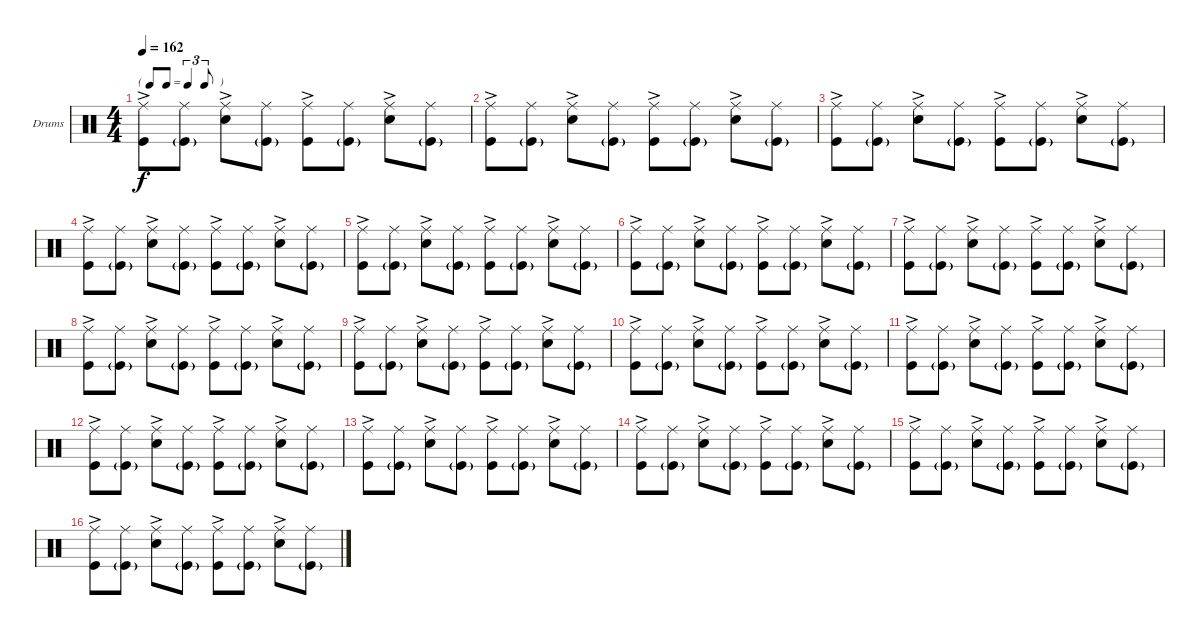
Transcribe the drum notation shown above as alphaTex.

\bracketExtendMode groupsimilarinstruments
\firstSystemTrackNameOrientation horizontal
\otherSystemsTrackNameOrientation horizontal
\track ("Drumkit" "Drums") {instrument percussion}
\staff {score}
\articulation defaults
\ts (4 4)
\tf triplet8th
\tempo 162
\clef neutral
\ks c
("Kick (hit)" "Ride (middle)"{ac}).8{dy f} ("Kick (hit)"{g} "Ride (middle)").8 ("Snare (hit) 2" "Ride (middle)"{ac}).8 ("Kick (hit)"{g} "Ride (middle)").8 ("Kick (hit)" "Ride (middle)"{ac}).8 ("Kick (hit)"{g} "Ride (middle)").8 ("Snare (hit) 2" "Ride (middle)"{ac}).8 ("Kick (hit)"{g} "Ride (middle)").8 |
("Kick (hit)" "Ride (middle)"{ac}).8 ("Kick (hit)"{g} "Ride (middle)").8 ("Snare (hit) 2" "Ride (middle)"{ac}).8 ("Kick (hit)"{g} "Ride (middle)").8 ("Kick (hit)" "Ride (middle)"{ac}).8 ("Kick (hit)"{g} "Ride (middle)").8 ("Snare (hit) 2" "Ride (middle)"{ac}).8 ("Kick (hit)"{g} "Ride (middle)").8 |
("Kick (hit)" "Ride (middle)"{ac}).8 ("Kick (hit)"{g} "Ride (middle)").8 ("Snare (hit) 2" "Ride (middle)"{ac}).8 ("Kick (hit)"{g} "Ride (middle)").8 ("Kick (hit)" "Ride (middle)"{ac}).8 ("Kick (hit)"{g} "Ride (middle)").8 ("Snare (hit) 2" "Ride (middle)"{ac}).8 ("Kick (hit)"{g} "Ride (middle)").8 |
("Kick (hit)" "Ride (middle)"{ac}).8 ("Kick (hit)"{g} "Ride (middle)").8 ("Snare (hit) 2" "Ride (middle)"{ac}).8 ("Kick (hit)"{g} "Ride (middle)").8 ("Kick (hit)" "Ride (middle)"{ac}).8 ("Kick (hit)"{g} "Ride (middle)").8 ("Snare (hit) 2" "Ride (middle)"{ac}).8 ("Kick (hit)"{g} "Ride (middle)").8 |
("Kick (hit)" "Ride (middle)"{ac}).8 ("Kick (hit)"{g} "Ride (middle)").8 ("Snare (hit) 2" "Ride (middle)"{ac}).8 ("Kick (hit)"{g} "Ride (middle)").8 ("Kick (hit)" "Ride (middle)"{ac}).8 ("Kick (hit)"{g} "Ride (middle)").8 ("Snare (hit) 2" "Ride (middle)"{ac}).8 ("Kick (hit)"{g} "Ride (middle)").8 |
("Kick (hit)" "Ride (middle)"{ac}).8 ("Kick (hit)"{g} "Ride (middle)").8 ("Snare (hit) 2" "Ride (middle)"{ac}).8 ("Kick (hit)"{g} "Ride (middle)").8 ("Kick (hit)" "Ride (middle)"{ac}).8 ("Kick (hit)"{g} "Ride (middle)").8 ("Snare (hit) 2" "Ride (middle)"{ac}).8 ("Kick (hit)"{g} "Ride (middle)").8 |
("Kick (hit)" "Ride (middle)"{ac}).8 ("Kick (hit)"{g} "Ride (middle)").8 ("Snare (hit) 2" "Ride (middle)"{ac}).8 ("Kick (hit)"{g} "Ride (middle)").8 ("Kick (hit)" "Ride (middle)"{ac}).8 ("Kick (hit)"{g} "Ride (middle)").8 ("Snare (hit) 2" "Ride (middle)"{ac}).8 ("Kick (hit)"{g} "Ride (middle)").8 |
("Kick (hit)" "Ride (middle)"{ac}).8 ("Kick (hit)"{g} "Ride (middle)").8 ("Snare (hit) 2" "Ride (middle)"{ac}).8 ("Kick (hit)"{g} "Ride (middle)").8 ("Kick (hit)" "Ride (middle)"{ac}).8 ("Kick (hit)"{g} "Ride (middle)").8 ("Snare (hit) 2" "Ride (middle)"{ac}).8 ("Kick (hit)"{g} "Ride (middle)").8 |
("Kick (hit)" "Ride (middle)"{ac}).8 ("Kick (hit)"{g} "Ride (middle)").8 ("Snare (hit) 2" "Ride (middle)"{ac}).8 ("Kick (hit)"{g} "Ride (middle)").8 ("Kick (hit)" "Ride (middle)"{ac}).8 ("Kick (hit)"{g} "Ride (middle)").8 ("Snare (hit) 2" "Ride (middle)"{ac}).8 ("Kick (hit)"{g} "Ride (middle)").8 |
("Kick (hit)" "Ride (middle)"{ac}).8 ("Kick (hit)"{g} "Ride (middle)").8 ("Snare (hit) 2" "Ride (middle)"{ac}).8 ("Kick (hit)"{g} "Ride (middle)").8 ("Kick (hit)" "Ride (middle)"{ac}).8 ("Kick (hit)"{g} "Ride (middle)").8 ("Snare (hit) 2" "Ride (middle)"{ac}).8 ("Kick (hit)"{g} "Ride (middle)").8 |
("Kick (hit)" "Ride (middle)"{ac}).8 ("Kick (hit)"{g} "Ride (middle)").8 ("Snare (hit) 2" "Ride (middle)"{ac}).8 ("Kick (hit)"{g} "Ride (middle)").8 ("Kick (hit)" "Ride (middle)"{ac}).8 ("Kick (hit)"{g} "Ride (middle)").8 ("Snare (hit) 2" "Ride (middle)"{ac}).8 ("Kick (hit)"{g} "Ride (middle)").8 |
("Kick (hit)" "Ride (middle)"{ac}).8 ("Kick (hit)"{g} "Ride (middle)").8 ("Snare (hit) 2" "Ride (middle)"{ac}).8 ("Kick (hit)"{g} "Ride (middle)").8 ("Kick (hit)" "Ride (middle)"{ac}).8 ("Kick (hit)"{g} "Ride (middle)").8 ("Snare (hit) 2" "Ride (middle)"{ac}).8 ("Kick (hit)"{g} "Ride (middle)").8 |
("Kick (hit)" "Ride (middle)"{ac}).8 ("Kick (hit)"{g} "Ride (middle)").8 ("Snare (hit) 2" "Ride (middle)"{ac}).8 ("Kick (hit)"{g} "Ride (middle)").8 ("Kick (hit)" "Ride (middle)"{ac}).8 ("Kick (hit)"{g} "Ride (middle)").8 ("Snare (hit) 2" "Ride (middle)"{ac}).8 ("Kick (hit)"{g} "Ride (middle)").8 |
("Kick (hit)" "Ride (middle)"{ac}).8 ("Kick (hit)"{g} "Ride (middle)").8 ("Snare (hit) 2" "Ride (middle)"{ac}).8 ("Kick (hit)"{g} "Ride (middle)").8 ("Kick (hit)" "Ride (middle)"{ac}).8 ("Kick (hit)"{g} "Ride (middle)").8 ("Snare (hit) 2" "Ride (middle)"{ac}).8 ("Kick (hit)"{g} "Ride (middle)").8 |
("Kick (hit)" "Ride (middle)"{ac}).8 ("Kick (hit)"{g} "Ride (middle)").8 ("Snare (hit) 2" "Ride (middle)"{ac}).8 ("Kick (hit)"{g} "Ride (middle)").8 ("Kick (hit)" "Ride (middle)"{ac}).8 ("Kick (hit)"{g} "Ride (middle)").8 ("Snare (hit) 2" "Ride (middle)"{ac}).8 ("Kick (hit)"{g} "Ride (middle)").8 |
("Kick (hit)" "Ride (middle)"{ac}).8 ("Kick (hit)"{g} "Ride (middle)").8 ("Snare (hit) 2" "Ride (middle)"{ac}).8 ("Kick (hit)"{g} "Ride (middle)").8 ("Kick (hit)" "Ride (middle)"{ac}).8 ("Kick (hit)"{g} "Ride (middle)").8 ("Snare (hit) 2" "Ride (middle)"{ac}).8 ("Kick (hit)"{g} "Ride (middle)").8
